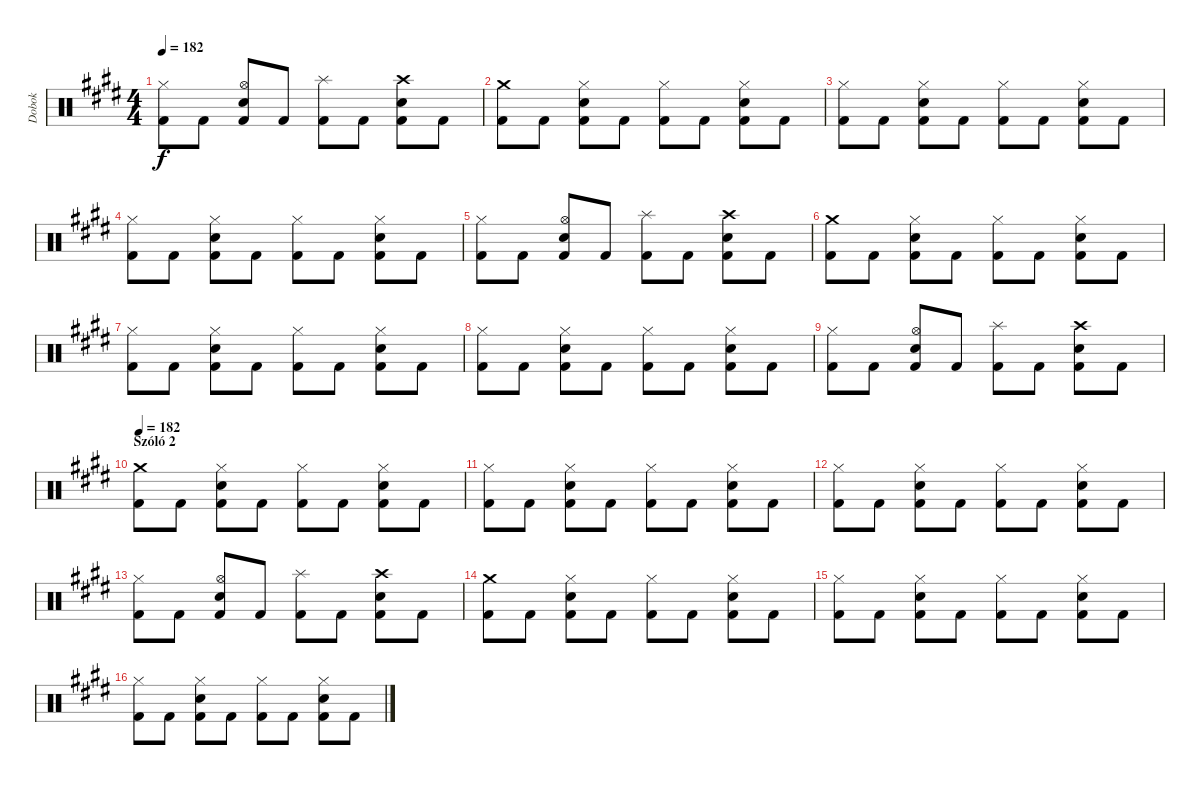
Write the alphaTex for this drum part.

\track ("Dobok" "Dobok") {instrument percussion}
\staff {score}
\articulation defaults
\ts (4 4)
\tempo 182
\clef neutral
\ks c#minor
("Hi-Hat (closed)" "Kick (hit) 2").8{dy f} "Kick (hit) 2".8 ("Hi-Hat (open)" "Snare (hit) 2" "Kick (hit) 2").8 "Kick (hit) 2".8 ("Splash (hit)" "Kick (hit) 2").8 "Kick (hit) 2".8 ("Crash high (hit)" "Snare (hit) 2" "Kick (hit) 2").8 "Kick (hit) 2".8 |
("Crash medium (hit)" "Kick (hit) 2").8 "Kick (hit) 2".8 ("Hi-Hat (closed)" "Snare (hit) 2" "Kick (hit) 2").8 "Kick (hit) 2".8 ("Hi-Hat (closed)" "Kick (hit) 2").8 "Kick (hit) 2".8 ("Hi-Hat (closed)" "Snare (hit) 2" "Kick (hit) 2").8 "Kick (hit) 2".8 |
("Hi-Hat (closed)" "Kick (hit) 2").8 "Kick (hit) 2".8 ("Hi-Hat (closed)" "Snare (hit) 2" "Kick (hit) 2").8 "Kick (hit) 2".8 ("Hi-Hat (closed)" "Kick (hit) 2").8 "Kick (hit) 2".8 ("Hi-Hat (closed)" "Snare (hit) 2" "Kick (hit) 2").8 "Kick (hit) 2".8 |
("Hi-Hat (closed)" "Kick (hit) 2").8 "Kick (hit) 2".8 ("Hi-Hat (closed)" "Snare (hit) 2" "Kick (hit) 2").8 "Kick (hit) 2".8 ("Hi-Hat (closed)" "Kick (hit) 2").8 "Kick (hit) 2".8 ("Hi-Hat (closed)" "Snare (hit) 2" "Kick (hit) 2").8 "Kick (hit) 2".8 |
("Hi-Hat (closed)" "Kick (hit) 2").8 "Kick (hit) 2".8 ("Hi-Hat (open)" "Snare (hit) 2" "Kick (hit) 2").8 "Kick (hit) 2".8 ("Splash (hit)" "Kick (hit) 2").8 "Kick (hit) 2".8 ("Crash high (hit)" "Snare (hit) 2" "Kick (hit) 2").8 "Kick (hit) 2".8 |
("Crash medium (hit)" "Kick (hit) 2").8 "Kick (hit) 2".8 ("Hi-Hat (closed)" "Snare (hit) 2" "Kick (hit) 2").8 "Kick (hit) 2".8 ("Hi-Hat (closed)" "Kick (hit) 2").8 "Kick (hit) 2".8 ("Hi-Hat (closed)" "Snare (hit) 2" "Kick (hit) 2").8 "Kick (hit) 2".8 |
("Hi-Hat (closed)" "Kick (hit) 2").8 "Kick (hit) 2".8 ("Hi-Hat (closed)" "Snare (hit) 2" "Kick (hit) 2").8 "Kick (hit) 2".8 ("Hi-Hat (closed)" "Kick (hit) 2").8 "Kick (hit) 2".8 ("Hi-Hat (closed)" "Snare (hit) 2" "Kick (hit) 2").8 "Kick (hit) 2".8 |
("Hi-Hat (closed)" "Kick (hit) 2").8 "Kick (hit) 2".8 ("Hi-Hat (closed)" "Snare (hit) 2" "Kick (hit) 2").8 "Kick (hit) 2".8 ("Hi-Hat (closed)" "Kick (hit) 2").8 "Kick (hit) 2".8 ("Hi-Hat (closed)" "Snare (hit) 2" "Kick (hit) 2").8 "Kick (hit) 2".8 |
("Hi-Hat (closed)" "Kick (hit) 2").8 "Kick (hit) 2".8 ("Hi-Hat (open)" "Snare (hit) 2" "Kick (hit) 2").8 "Kick (hit) 2".8 ("Splash (hit)" "Kick (hit) 2").8 "Kick (hit) 2".8 ("Crash high (hit)" "Snare (hit) 2" "Kick (hit) 2").8 "Kick (hit) 2".8 |
\section ("" "Szóló 2")
\tempo 182
("Crash medium (hit)" "Kick (hit) 2").8 "Kick (hit) 2".8 ("Hi-Hat (closed)" "Snare (hit) 2" "Kick (hit) 2").8 "Kick (hit) 2".8 ("Hi-Hat (closed)" "Kick (hit) 2").8 "Kick (hit) 2".8 ("Hi-Hat (closed)" "Snare (hit) 2" "Kick (hit) 2").8 "Kick (hit) 2".8 |
("Hi-Hat (closed)" "Kick (hit) 2").8 "Kick (hit) 2".8 ("Hi-Hat (closed)" "Snare (hit) 2" "Kick (hit) 2").8 "Kick (hit) 2".8 ("Hi-Hat (closed)" "Kick (hit) 2").8 "Kick (hit) 2".8 ("Hi-Hat (closed)" "Snare (hit) 2" "Kick (hit) 2").8 "Kick (hit) 2".8 |
("Hi-Hat (closed)" "Kick (hit) 2").8 "Kick (hit) 2".8 ("Hi-Hat (closed)" "Snare (hit) 2" "Kick (hit) 2").8 "Kick (hit) 2".8 ("Hi-Hat (closed)" "Kick (hit) 2").8 "Kick (hit) 2".8 ("Hi-Hat (closed)" "Snare (hit) 2" "Kick (hit) 2").8 "Kick (hit) 2".8 |
("Hi-Hat (closed)" "Kick (hit) 2").8 "Kick (hit) 2".8 ("Hi-Hat (open)" "Snare (hit) 2" "Kick (hit) 2").8 "Kick (hit) 2".8 ("Splash (hit)" "Kick (hit) 2").8 "Kick (hit) 2".8 ("Crash high (hit)" "Snare (hit) 2" "Kick (hit) 2").8 "Kick (hit) 2".8 |
("Crash medium (hit)" "Kick (hit) 2").8 "Kick (hit) 2".8 ("Hi-Hat (closed)" "Snare (hit) 2" "Kick (hit) 2").8 "Kick (hit) 2".8 ("Hi-Hat (closed)" "Kick (hit) 2").8 "Kick (hit) 2".8 ("Hi-Hat (closed)" "Snare (hit) 2" "Kick (hit) 2").8 "Kick (hit) 2".8 |
("Hi-Hat (closed)" "Kick (hit) 2").8 "Kick (hit) 2".8 ("Hi-Hat (closed)" "Snare (hit) 2" "Kick (hit) 2").8 "Kick (hit) 2".8 ("Hi-Hat (closed)" "Kick (hit) 2").8 "Kick (hit) 2".8 ("Hi-Hat (closed)" "Snare (hit) 2" "Kick (hit) 2").8 "Kick (hit) 2".8 |
("Hi-Hat (closed)" "Kick (hit) 2").8 "Kick (hit) 2".8 ("Hi-Hat (closed)" "Snare (hit) 2" "Kick (hit) 2").8 "Kick (hit) 2".8 ("Hi-Hat (closed)" "Kick (hit) 2").8 "Kick (hit) 2".8 ("Hi-Hat (closed)" "Snare (hit) 2" "Kick (hit) 2").8 "Kick (hit) 2".8
